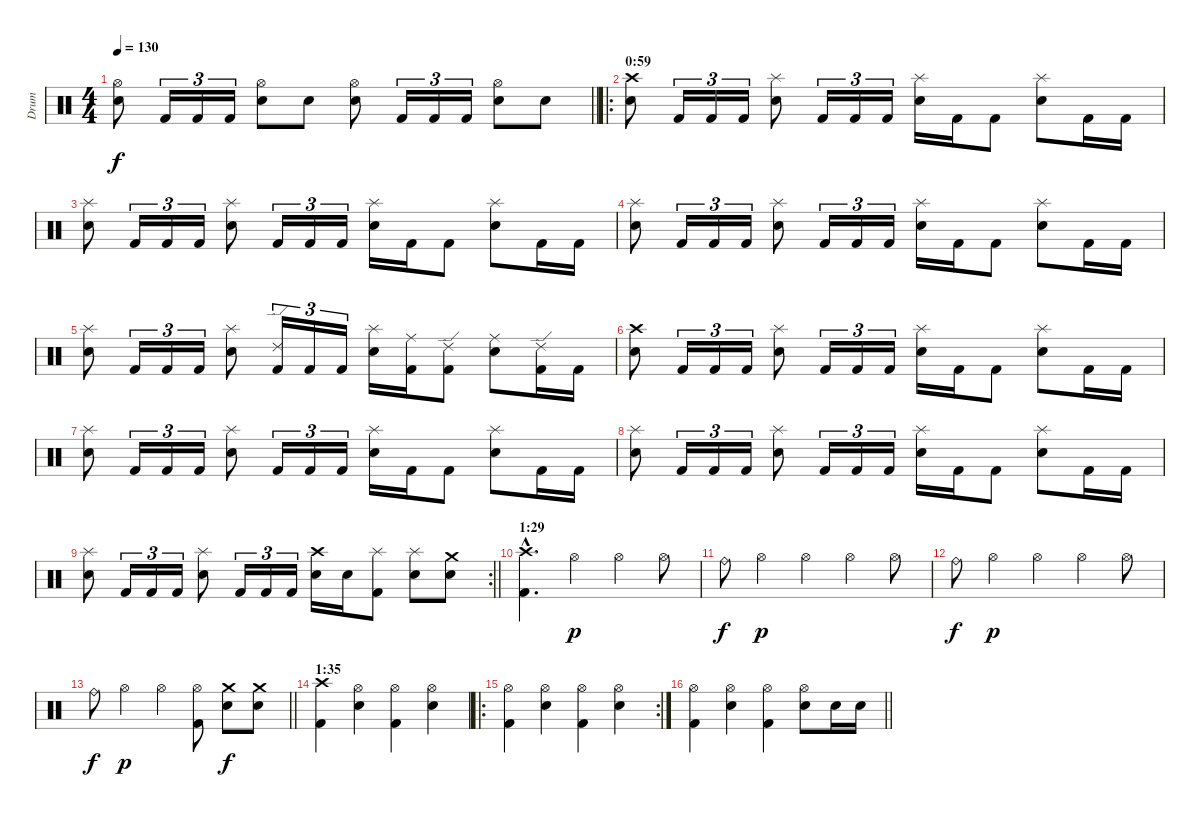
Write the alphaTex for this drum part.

\track ("Drum" "Drum") {instrument percussion}
\staff {score}
\articulation defaults
\ts (4 4)
\tempo 130
\clef neutral
\barLineRight lightlight
\ks c
("Electric Snare (hit)" "Hi-Hat (open)").8{dy f} "Kick (hit) 2".16{tu (3 2)} "Kick (hit) 2".16{tu (3 2)} "Kick (hit) 2".16{tu (3 2)} ("Electric Snare (hit)" "Hi-Hat (open)").8 "Electric Snare (hit)".8 ("Electric Snare (hit)" "Hi-Hat (open)").8 "Kick (hit) 2".16{tu (3 2)} "Kick (hit) 2".16{tu (3 2)} "Kick (hit) 2".16{tu (3 2)} ("Electric Snare (hit)" "Hi-Hat (open)").8 "Electric Snare (hit)".8 |
\ro
\section ("" "0:59")
("Electric Snare (hit)" "Crash high (hit)").8 "Kick (hit) 2".16{tu (3 2)} "Kick (hit) 2".16{tu (3 2)} "Kick (hit) 2".16{tu (3 2)} ("Electric Snare (hit)" "Splash (hit)").8 "Kick (hit) 2".16{tu (3 2)} "Kick (hit) 2".16{tu (3 2)} "Kick (hit) 2".16{tu (3 2)} ("Electric Snare (hit)" "Splash (hit)").16 "Kick (hit) 2".16 "Kick (hit) 2".8 ("Electric Snare (hit)" "Splash (hit)").8 "Kick (hit) 2".16 "Kick (hit) 2".16 |
("Electric Snare (hit)" "Splash (hit)").8 "Kick (hit) 2".16{tu (3 2)} "Kick (hit) 2".16{tu (3 2)} "Kick (hit) 2".16{tu (3 2)} ("Electric Snare (hit)" "Splash (hit)").8 "Kick (hit) 2".16{tu (3 2)} "Kick (hit) 2".16{tu (3 2)} "Kick (hit) 2".16{tu (3 2)} ("Electric Snare (hit)" "Splash (hit)").16 "Kick (hit) 2".16 "Kick (hit) 2".8 ("Electric Snare (hit)" "Splash (hit)").8 "Kick (hit) 2".16 "Kick (hit) 2".16 |
("Electric Snare (hit)" "Splash (hit)").8 "Kick (hit) 2".16{tu (3 2)} "Kick (hit) 2".16{tu (3 2)} "Kick (hit) 2".16{tu (3 2)} ("Electric Snare (hit)" "Splash (hit)").8 "Kick (hit) 2".16{tu (3 2)} "Kick (hit) 2".16{tu (3 2)} "Kick (hit) 2".16{tu (3 2)} ("Electric Snare (hit)" "Splash (hit)").16 "Kick (hit) 2".16 "Kick (hit) 2".8 ("Electric Snare (hit)" "Splash (hit)").8 "Kick (hit) 2".16 "Kick (hit) 2".16 |
("Electric Snare (hit)" "Splash (hit)").8 "Kick (hit) 2".16{tu (3 2)} "Kick (hit) 2".16{tu (3 2)} "Kick (hit) 2".16{tu (3 2)} ("Electric Snare (hit)" "Splash (hit)").8 ("Kick (hit) 2" "Ride (edge) 2").16{tu (3 2)} "Kick (hit) 2".16{tu (3 2)} "Kick (hit) 2".16{tu (3 2)} ("Electric Snare (hit)" "Splash (hit)").16 ("Kick (hit) 2" "Ride (middle)").16 ("Kick (hit) 2" "Ride (edge) 2").8 ("Electric Snare (hit)" "Ride (middle)").8 ("Kick (hit) 2" "Ride (edge) 2").16 "Kick (hit) 2".16 |
("Electric Snare (hit)" "Crash high (hit)").8 "Kick (hit) 2".16{tu (3 2)} "Kick (hit) 2".16{tu (3 2)} "Kick (hit) 2".16{tu (3 2)} ("Electric Snare (hit)" "Splash (hit)").8 "Kick (hit) 2".16{tu (3 2)} "Kick (hit) 2".16{tu (3 2)} "Kick (hit) 2".16{tu (3 2)} ("Electric Snare (hit)" "Splash (hit)").16 "Kick (hit) 2".16 "Kick (hit) 2".8 ("Electric Snare (hit)" "Splash (hit)").8 "Kick (hit) 2".16 "Kick (hit) 2".16 |
("Electric Snare (hit)" "Splash (hit)").8 "Kick (hit) 2".16{tu (3 2)} "Kick (hit) 2".16{tu (3 2)} "Kick (hit) 2".16{tu (3 2)} ("Electric Snare (hit)" "Splash (hit)").8 "Kick (hit) 2".16{tu (3 2)} "Kick (hit) 2".16{tu (3 2)} "Kick (hit) 2".16{tu (3 2)} ("Electric Snare (hit)" "Splash (hit)").16 "Kick (hit) 2".16 "Kick (hit) 2".8 ("Electric Snare (hit)" "Splash (hit)").8 "Kick (hit) 2".16 "Kick (hit) 2".16 |
("Electric Snare (hit)" "Splash (hit)").8 "Kick (hit) 2".16{tu (3 2)} "Kick (hit) 2".16{tu (3 2)} "Kick (hit) 2".16{tu (3 2)} ("Electric Snare (hit)" "Splash (hit)").8 "Kick (hit) 2".16{tu (3 2)} "Kick (hit) 2".16{tu (3 2)} "Kick (hit) 2".16{tu (3 2)} ("Electric Snare (hit)" "Splash (hit)").16 "Kick (hit) 2".16 "Kick (hit) 2".8 ("Electric Snare (hit)" "Splash (hit)").8 "Kick (hit) 2".16 "Kick (hit) 2".16 |
\rc 2
\barLineRight lightlight
("Electric Snare (hit)" "Splash (hit)").8 "Kick (hit) 2".16{tu (3 2)} "Kick (hit) 2".16{tu (3 2)} "Kick (hit) 2".16{tu (3 2)} ("Electric Snare (hit)" "Splash (hit)").8 "Kick (hit) 2".16{tu (3 2)} "Kick (hit) 2".16{tu (3 2)} "Kick (hit) 2".16{tu (3 2)} ("Electric Snare (hit)" "Crash high (hit)").16 "Electric Snare (hit)".16 ("Kick (hit) 2" "Splash (hit)").8 ("Electric Snare (hit)" "Splash (hit)").8 ("Electric Snare (hit)" "Crash medium (hit)").8 |
\section ("" "1:29")
("Kick (hit) 2"{hac} "Crash high (hit)"{hac}).4{d} "Hi-Hat (open)".4{dy p} "Hi-Hat (open)".4 "Hi-Hat (open)".8 |
"Ride (bell)".8{dy f} "Hi-Hat (open)".4{dy p} "Hi-Hat (open)".4 "Hi-Hat (open)".4 "Hi-Hat (open)".8 |
"Ride (bell)".8{dy f} "Hi-Hat (open)".4{dy p} "Hi-Hat (open)".4 "Hi-Hat (open)".4 "Hi-Hat (open)".8 |
\barLineRight lightlight "Ride (bell)".8{dy f} "Hi-Hat (open)".4{dy p} "Hi-Hat (open)".4
("Kick (hit) 2" "Hi-Hat (open)").8 ("Electric Snare (hit)" "Crash medium (hit)").8{dy f} ("Electric Snare (hit)" "Crash medium (hit)").8 |
\section ("" "1:35")
("Kick (hit) 2" "Crash high (hit)").4 ("Electric Snare (hit)" "Hi-Hat (open)").4 ("Kick (hit) 2" "Hi-Hat (open)").4 ("Electric Snare (hit)" "Hi-Hat (open)").4 |
\ro
\rc 2
("Kick (hit) 2" "Hi-Hat (open)").4 ("Electric Snare (hit)" "Hi-Hat (open)").4 ("Kick (hit) 2" "Hi-Hat (open)").4 ("Electric Snare (hit)" "Hi-Hat (open)").4 |
\barLineRight lightlight
("Kick (hit) 2" "Hi-Hat (open)").4 ("Electric Snare (hit)" "Hi-Hat (open)").4 ("Kick (hit) 2" "Hi-Hat (open)").4 ("Electric Snare (hit)" "Hi-Hat (open)").8 "Electric Snare (hit)".16 "Electric Snare (hit)".16
